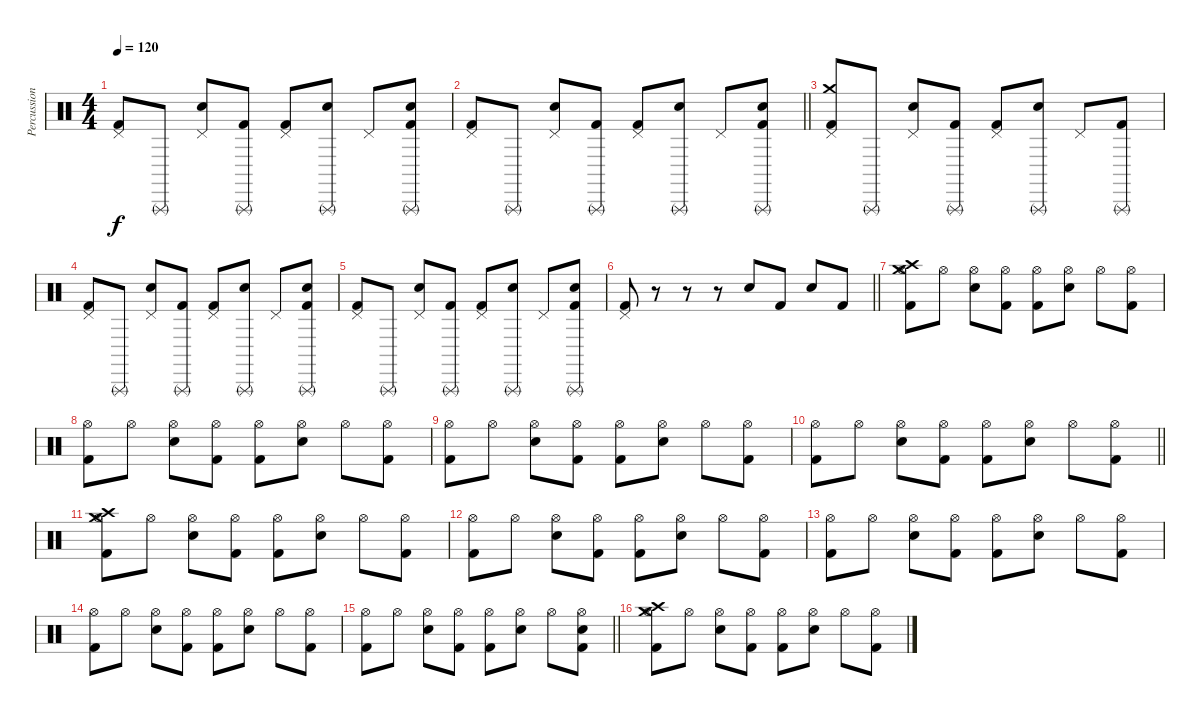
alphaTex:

\track ("Percussion" "Percussion") {instrument percussion}
\staff {score}
\articulation defaults
\ts (4 4)
\tempo 120
\clef neutral
\ks c
("Pedal Hi-Hat (hit)" "Kick (hit) 2").8{dy f} "Triangle (rnute)".8 ("Pedal Hi-Hat (hit)" "Snare (hit) 2").8 ("Triangle (rnute)" "Kick (hit) 2").8 ("Pedal Hi-Hat (hit)" "Kick (hit) 2").8 ("Triangle (rnute)" "Snare (hit) 2").8 "Pedal Hi-Hat (hit)".8 ("Triangle (rnute)" "Snare (hit) 2" "Kick (hit) 2").8 |
\barLineRight lightlight
("Pedal Hi-Hat (hit)" "Kick (hit) 2").8 "Triangle (rnute)".8 ("Pedal Hi-Hat (hit)" "Snare (hit) 2").8 ("Triangle (rnute)" "Kick (hit) 2").8 ("Pedal Hi-Hat (hit)" "Kick (hit) 2").8 ("Triangle (rnute)" "Snare (hit) 2").8 "Pedal Hi-Hat (hit)".8 ("Triangle (rnute)" "Snare (hit) 2" "Kick (hit) 2").8 |
("Crash medium (hit)" "Pedal Hi-Hat (hit)" "Kick (hit) 2").8 "Triangle (rnute)".8 ("Pedal Hi-Hat (hit)" "Snare (hit) 2").8 ("Triangle (rnute)" "Kick (hit) 2").8 ("Pedal Hi-Hat (hit)" "Kick (hit) 2").8 ("Triangle (rnute)" "Snare (hit) 2").8 "Pedal Hi-Hat (hit)".8 ("Triangle (rnute)" "Kick (hit) 2").8 |
("Pedal Hi-Hat (hit)" "Kick (hit) 2").8 "Triangle (rnute)".8 ("Pedal Hi-Hat (hit)" "Snare (hit) 2").8 ("Triangle (rnute)" "Kick (hit) 2").8 ("Pedal Hi-Hat (hit)" "Kick (hit) 2").8 ("Triangle (rnute)" "Snare (hit) 2").8 "Pedal Hi-Hat (hit)".8 ("Triangle (rnute)" "Snare (hit) 2" "Kick (hit) 2").8 |
("Pedal Hi-Hat (hit)" "Kick (hit) 2").8 "Triangle (rnute)".8 ("Pedal Hi-Hat (hit)" "Snare (hit) 2").8 ("Triangle (rnute)" "Kick (hit) 2").8 ("Pedal Hi-Hat (hit)" "Kick (hit) 2").8 ("Triangle (rnute)" "Snare (hit) 2").8 "Pedal Hi-Hat (hit)".8 ("Triangle (rnute)" "Snare (hit) 2" "Kick (hit) 2").8 |
\barLineRight lightlight
("Pedal Hi-Hat (hit)" "Kick (hit) 2").8 r.8 r.8 r.8 "Snare (hit) 2".8 "Kick (hit) 2".8 "Snare (hit) 2".8 "Kick (hit) 2".8 |
("Crash medium (hit)" "Crash high (hit)" "Hi-Hat (open)" "Kick (hit) 2").8 "Hi-Hat (open)".8 ("Hi-Hat (open)" "Snare (hit) 2").8 ("Hi-Hat (open)" "Kick (hit) 2").8 ("Hi-Hat (open)" "Kick (hit) 2").8 ("Hi-Hat (open)" "Snare (hit) 2").8 "Hi-Hat (open)".8 ("Hi-Hat (open)" "Kick (hit) 2").8 |
("Hi-Hat (open)" "Kick (hit) 2").8 "Hi-Hat (open)".8 ("Hi-Hat (open)" "Snare (hit) 2").8 ("Hi-Hat (open)" "Kick (hit) 2").8 ("Hi-Hat (open)" "Kick (hit) 2").8 ("Hi-Hat (open)" "Snare (hit) 2").8 "Hi-Hat (open)".8 ("Hi-Hat (open)" "Kick (hit) 2").8 |
("Hi-Hat (open)" "Kick (hit) 2").8 "Hi-Hat (open)".8 ("Hi-Hat (open)" "Snare (hit) 2").8 ("Hi-Hat (open)" "Kick (hit) 2").8 ("Hi-Hat (open)" "Kick (hit) 2").8 ("Hi-Hat (open)" "Snare (hit) 2").8 "Hi-Hat (open)".8 ("Hi-Hat (open)" "Kick (hit) 2").8 |
\barLineRight lightlight
("Hi-Hat (open)" "Kick (hit) 2").8 "Hi-Hat (open)".8 ("Hi-Hat (open)" "Snare (hit) 2").8 ("Hi-Hat (open)" "Kick (hit) 2").8 ("Hi-Hat (open)" "Kick (hit) 2").8 ("Hi-Hat (open)" "Snare (hit) 2").8 "Hi-Hat (open)".8 ("Hi-Hat (open)" "Kick (hit) 2").8 |
("Crash medium (hit)" "Crash high (hit)" "Hi-Hat (open)" "Kick (hit) 2").8 "Hi-Hat (open)".8 ("Hi-Hat (open)" "Snare (hit) 2").8 ("Hi-Hat (open)" "Kick (hit) 2").8 ("Hi-Hat (open)" "Kick (hit) 2").8 ("Hi-Hat (open)" "Snare (hit) 2").8 "Hi-Hat (open)".8 ("Hi-Hat (open)" "Kick (hit) 2").8 |
("Hi-Hat (open)" "Kick (hit) 2").8 "Hi-Hat (open)".8 ("Hi-Hat (open)" "Snare (hit) 2").8 ("Hi-Hat (open)" "Kick (hit) 2").8 ("Hi-Hat (open)" "Kick (hit) 2").8 ("Hi-Hat (open)" "Snare (hit) 2").8 "Hi-Hat (open)".8 ("Hi-Hat (open)" "Kick (hit) 2").8 |
("Hi-Hat (open)" "Kick (hit) 2").8 "Hi-Hat (open)".8 ("Hi-Hat (open)" "Snare (hit) 2").8 ("Hi-Hat (open)" "Kick (hit) 2").8 ("Hi-Hat (open)" "Kick (hit) 2").8 ("Hi-Hat (open)" "Snare (hit) 2").8 "Hi-Hat (open)".8 ("Hi-Hat (open)" "Kick (hit) 2").8 |
("Hi-Hat (open)" "Kick (hit) 2").8 "Hi-Hat (open)".8 ("Hi-Hat (open)" "Snare (hit) 2").8 ("Hi-Hat (open)" "Kick (hit) 2").8 ("Hi-Hat (open)" "Kick (hit) 2").8 ("Hi-Hat (open)" "Snare (hit) 2").8 "Hi-Hat (open)".8 ("Hi-Hat (open)" "Kick (hit) 2").8 |
\barLineRight lightlight
("Hi-Hat (open)" "Kick (hit) 2").8 "Hi-Hat (open)".8 ("Hi-Hat (open)" "Snare (hit) 2").8 ("Hi-Hat (open)" "Kick (hit) 2").8 ("Hi-Hat (open)" "Kick (hit) 2").8 ("Hi-Hat (open)" "Snare (hit) 2").8 "Hi-Hat (open)".8 ("Hi-Hat (open)" "Snare (hit) 2" "Kick (hit) 2").8 |
("Crash medium (hit)" "Crash high (hit)" "Hi-Hat (open)" "Kick (hit) 2").8 "Hi-Hat (open)".8 ("Hi-Hat (open)" "Snare (hit) 2").8 ("Hi-Hat (open)" "Kick (hit) 2").8 ("Hi-Hat (open)" "Kick (hit) 2").8 ("Hi-Hat (open)" "Snare (hit) 2").8 "Hi-Hat (open)".8 ("Hi-Hat (open)" "Kick (hit) 2").8
